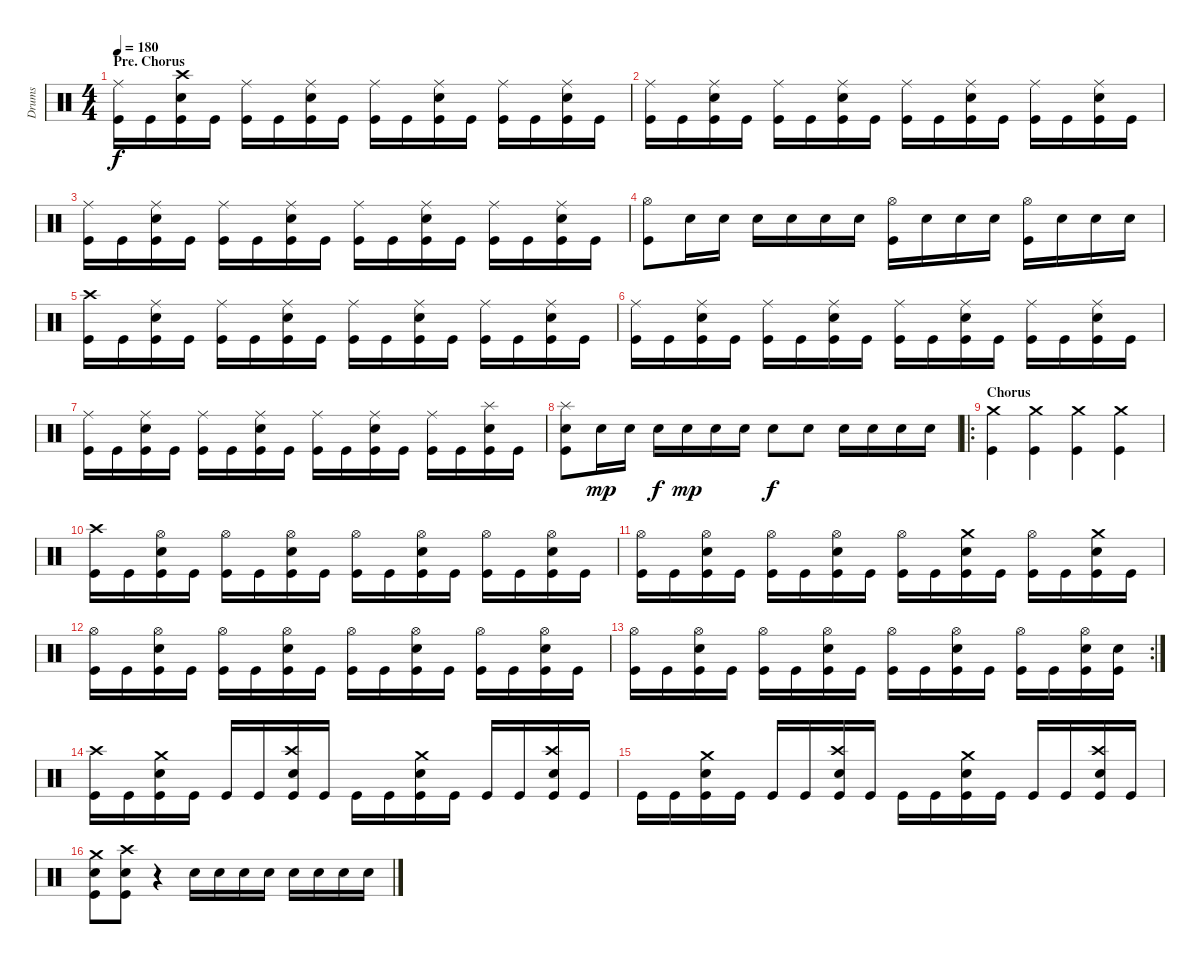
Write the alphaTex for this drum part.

\track ("Drums" "Drums") {instrument percussion}
\staff {score}
\articulation defaults
\ts (4 4)
\section ("" "Pre. Chorus")
\tempo 180
\clef neutral
\ks c
("Ride (middle)" "Kick (hit)").16{dy f} "Kick (hit)".16 ("Crash high (hit)" "Electric Snare (hit)" "Kick (hit)").16 "Kick (hit)".16 ("Ride (middle)" "Kick (hit)").16 "Kick (hit)".16 ("Ride (middle)" "Electric Snare (hit)" "Kick (hit)").16 "Kick (hit)".16 ("Ride (middle)" "Kick (hit)").16 "Kick (hit)".16 ("Ride (middle)" "Electric Snare (hit)" "Kick (hit)").16 "Kick (hit)".16 ("Ride (middle)" "Kick (hit)").16 "Kick (hit)".16 ("Ride (middle)" "Electric Snare (hit)" "Kick (hit)").16 "Kick (hit)".16 |
("Ride (middle)" "Kick (hit)").16 "Kick (hit)".16 ("Ride (middle)" "Electric Snare (hit)" "Kick (hit)").16 "Kick (hit)".16 ("Ride (middle)" "Kick (hit)").16 "Kick (hit)".16 ("Ride (middle)" "Electric Snare (hit)" "Kick (hit)").16 "Kick (hit)".16 ("Ride (middle)" "Kick (hit)").16 "Kick (hit)".16 ("Ride (middle)" "Electric Snare (hit)" "Kick (hit)").16 "Kick (hit)".16 ("Ride (middle)" "Kick (hit)").16 "Kick (hit)".16 ("Ride (middle)" "Electric Snare (hit)" "Kick (hit)").16 "Kick (hit)".16 |
("Ride (middle)" "Kick (hit)").16 "Kick (hit)".16 ("Ride (middle)" "Electric Snare (hit)" "Kick (hit)").16 "Kick (hit)".16 ("Ride (middle)" "Kick (hit)").16 "Kick (hit)".16 ("Ride (middle)" "Electric Snare (hit)" "Kick (hit)").16 "Kick (hit)".16 ("Ride (middle)" "Kick (hit)").16 "Kick (hit)".16 ("Ride (middle)" "Electric Snare (hit)" "Kick (hit)").16 "Kick (hit)".16 ("Ride (middle)" "Kick (hit)").16 "Kick (hit)".16 ("Ride (middle)" "Electric Snare (hit)" "Kick (hit)").16 "Kick (hit)".16 |
("Hi-Hat (open)" "Kick (hit)").8 "Electric Snare (hit)".16 "Electric Snare (hit)".16 "Electric Snare (hit)".16 "Electric Snare (hit)".16 "Electric Snare (hit)".16 "Electric Snare (hit)".16 ("Hi-Hat (open)" "Kick (hit)").16 "Electric Snare (hit)".16 "Electric Snare (hit)".16 "Electric Snare (hit)".16 ("Hi-Hat (open)" "Kick (hit)").16 "Electric Snare (hit)".16 "Electric Snare (hit)".16 "Electric Snare (hit)".16 |
("Crash high (hit)" "Kick (hit)").16 "Kick (hit)".16 ("Ride (middle)" "Electric Snare (hit)" "Kick (hit)").16 "Kick (hit)".16 ("Ride (middle)" "Kick (hit)").16 "Kick (hit)".16 ("Ride (middle)" "Electric Snare (hit)" "Kick (hit)").16 "Kick (hit)".16 ("Ride (middle)" "Kick (hit)").16 "Kick (hit)".16 ("Ride (middle)" "Electric Snare (hit)" "Kick (hit)").16 "Kick (hit)".16 ("Ride (middle)" "Kick (hit)").16 "Kick (hit)".16 ("Ride (middle)" "Electric Snare (hit)" "Kick (hit)").16 "Kick (hit)".16 |
("Ride (middle)" "Kick (hit)").16 "Kick (hit)".16 ("Ride (middle)" "Electric Snare (hit)" "Kick (hit)").16 "Kick (hit)".16 ("Ride (middle)" "Kick (hit)").16 "Kick (hit)".16 ("Ride (middle)" "Electric Snare (hit)" "Kick (hit)").16 "Kick (hit)".16 ("Ride (middle)" "Kick (hit)").16 "Kick (hit)".16 ("Ride (middle)" "Electric Snare (hit)" "Kick (hit)").16 "Kick (hit)".16 ("Ride (middle)" "Kick (hit)").16 "Kick (hit)".16 ("Ride (middle)" "Electric Snare (hit)" "Kick (hit)").16 "Kick (hit)".16 |
("Ride (middle)" "Kick (hit)").16 "Kick (hit)".16 ("Ride (middle)" "Electric Snare (hit)" "Kick (hit)").16 "Kick (hit)".16 ("Ride (middle)" "Kick (hit)").16 "Kick (hit)".16 ("Ride (middle)" "Electric Snare (hit)" "Kick (hit)").16 "Kick (hit)".16 ("Ride (middle)" "Kick (hit)").16 "Kick (hit)".16 ("Ride (middle)" "Electric Snare (hit)" "Kick (hit)").16 "Kick (hit)".16 ("Ride (middle)" "Kick (hit)").16 "Kick (hit)".16 ("Splash (hit)" "Electric Snare (hit)" "Kick (hit)").16 "Kick (hit)".16 |
("Splash (hit)" "Electric Snare (hit)" "Kick (hit)").8 "Electric Snare (hit)".16{dy mp} "Electric Snare (hit)".16 "Electric Snare (hit)".16{dy f} "Electric Snare (hit)".16{dy mp} "Electric Snare (hit)".16 "Electric Snare (hit)".16 "Electric Snare (hit)".8{dy f} "Electric Snare (hit)".8 "Electric Snare (hit)".16 "Electric Snare (hit)".16 "Electric Snare (hit)".16 "Electric Snare (hit)".16 |
\ro
\section ("" "Chorus")
("Crash medium (hit)" "Kick (hit)").4 ("Crash medium (hit)" "Kick (hit)").4 ("Crash medium (hit)" "Kick (hit)").4 ("Crash medium (hit)" "Kick (hit)").4 |
("Crash high (hit)" "Kick (hit)").16 "Kick (hit)".16 ("Hi-Hat (open)" "Electric Snare (hit)" "Kick (hit)").16 "Kick (hit)".16 ("Hi-Hat (open)" "Kick (hit)").16 "Kick (hit)".16 ("Hi-Hat (open)" "Electric Snare (hit)" "Kick (hit)").16 "Kick (hit)".16 ("Hi-Hat (open)" "Kick (hit)").16 "Kick (hit)".16 ("Hi-Hat (open)" "Electric Snare (hit)" "Kick (hit)").16 "Kick (hit)".16 ("Hi-Hat (open)" "Kick (hit)").16 "Kick (hit)".16 ("Hi-Hat (open)" "Electric Snare (hit)" "Kick (hit)").16 "Kick (hit)".16 |
("Hi-Hat (open)" "Kick (hit)").16 "Kick (hit)".16 ("Hi-Hat (open)" "Electric Snare (hit)" "Kick (hit)").16 "Kick (hit)".16 ("Hi-Hat (open)" "Kick (hit)").16 "Kick (hit)".16 ("Hi-Hat (open)" "Electric Snare (hit)" "Kick (hit)").16 "Kick (hit)".16 ("Hi-Hat (open)" "Kick (hit)").16 "Kick (hit)".16 ("Crash medium (hit)" "Electric Snare (hit)" "Kick (hit)").16 "Kick (hit)".16 ("Hi-Hat (open)" "Kick (hit)").16 "Kick (hit)".16 ("Crash medium (hit)" "Electric Snare (hit)" "Kick (hit)").16 "Kick (hit)".16 |
("Hi-Hat (open)" "Kick (hit)").16 "Kick (hit)".16 ("Hi-Hat (open)" "Electric Snare (hit)" "Kick (hit)").16 "Kick (hit)".16 ("Hi-Hat (open)" "Kick (hit)").16 "Kick (hit)".16 ("Hi-Hat (open)" "Electric Snare (hit)" "Kick (hit)").16 "Kick (hit)".16 ("Hi-Hat (open)" "Kick (hit)").16 "Kick (hit)".16 ("Hi-Hat (open)" "Electric Snare (hit)" "Kick (hit)").16 "Kick (hit)".16 ("Hi-Hat (open)" "Kick (hit)").16 "Kick (hit)".16 ("Hi-Hat (open)" "Electric Snare (hit)" "Kick (hit)").16 "Kick (hit)".16 |
\rc 2
("Hi-Hat (open)" "Kick (hit)").16 "Kick (hit)".16 ("Hi-Hat (open)" "Electric Snare (hit)" "Kick (hit)").16 "Kick (hit)".16 ("Hi-Hat (open)" "Kick (hit)").16 "Kick (hit)".16 ("Hi-Hat (open)" "Electric Snare (hit)" "Kick (hit)").16 "Kick (hit)".16 ("Hi-Hat (open)" "Kick (hit)").16 "Kick (hit)".16 ("Hi-Hat (open)" "Electric Snare (hit)" "Kick (hit)").16 "Kick (hit)".16 ("Hi-Hat (open)" "Kick (hit)").16 "Kick (hit)".16 ("Hi-Hat (open)" "Electric Snare (hit)" "Kick (hit)").16 ("Electric Snare (hit)" "Kick (hit)").16 |
("Crash high (hit)" "Kick (hit)").16 "Kick (hit)".16 ("Crash medium (hit)" "Electric Snare (hit)" "Kick (hit)").16 "Kick (hit)".16 "Kick (hit)".16 "Kick (hit)".16 ("Crash high (hit)" "Electric Snare (hit)" "Kick (hit)").16 "Kick (hit)".16 "Kick (hit)".16 "Kick (hit)".16 ("Crash medium (hit)" "Electric Snare (hit)" "Kick (hit)").16 "Kick (hit)".16 "Kick (hit)".16 "Kick (hit)".16 ("Crash high (hit)" "Electric Snare (hit)" "Kick (hit)").16 "Kick (hit)".16 |
"Kick (hit)".16 "Kick (hit)".16 ("Crash medium (hit)" "Electric Snare (hit)" "Kick (hit)").16 "Kick (hit)".16 "Kick (hit)".16 "Kick (hit)".16 ("Crash high (hit)" "Electric Snare (hit)" "Kick (hit)").16 "Kick (hit)".16 "Kick (hit)".16 "Kick (hit)".16 ("Crash medium (hit)" "Electric Snare (hit)" "Kick (hit)").16 "Kick (hit)".16 "Kick (hit)".16 "Kick (hit)".16 ("Crash high (hit)" "Electric Snare (hit)" "Kick (hit)").16 "Kick (hit)".16 |
("Crash medium (hit)" "Electric Snare (hit)" "Kick (hit)").8 ("Crash high (hit)" "Electric Snare (hit)" "Kick (hit)").8 r.4 "Electric Snare (hit)".16 "Electric Snare (hit)".16 "Electric Snare (hit)".16 "Electric Snare (hit)".16 "Electric Snare (hit)".16 "Electric Snare (hit)".16 "Electric Snare (hit)".16 "Electric Snare (hit)".16
